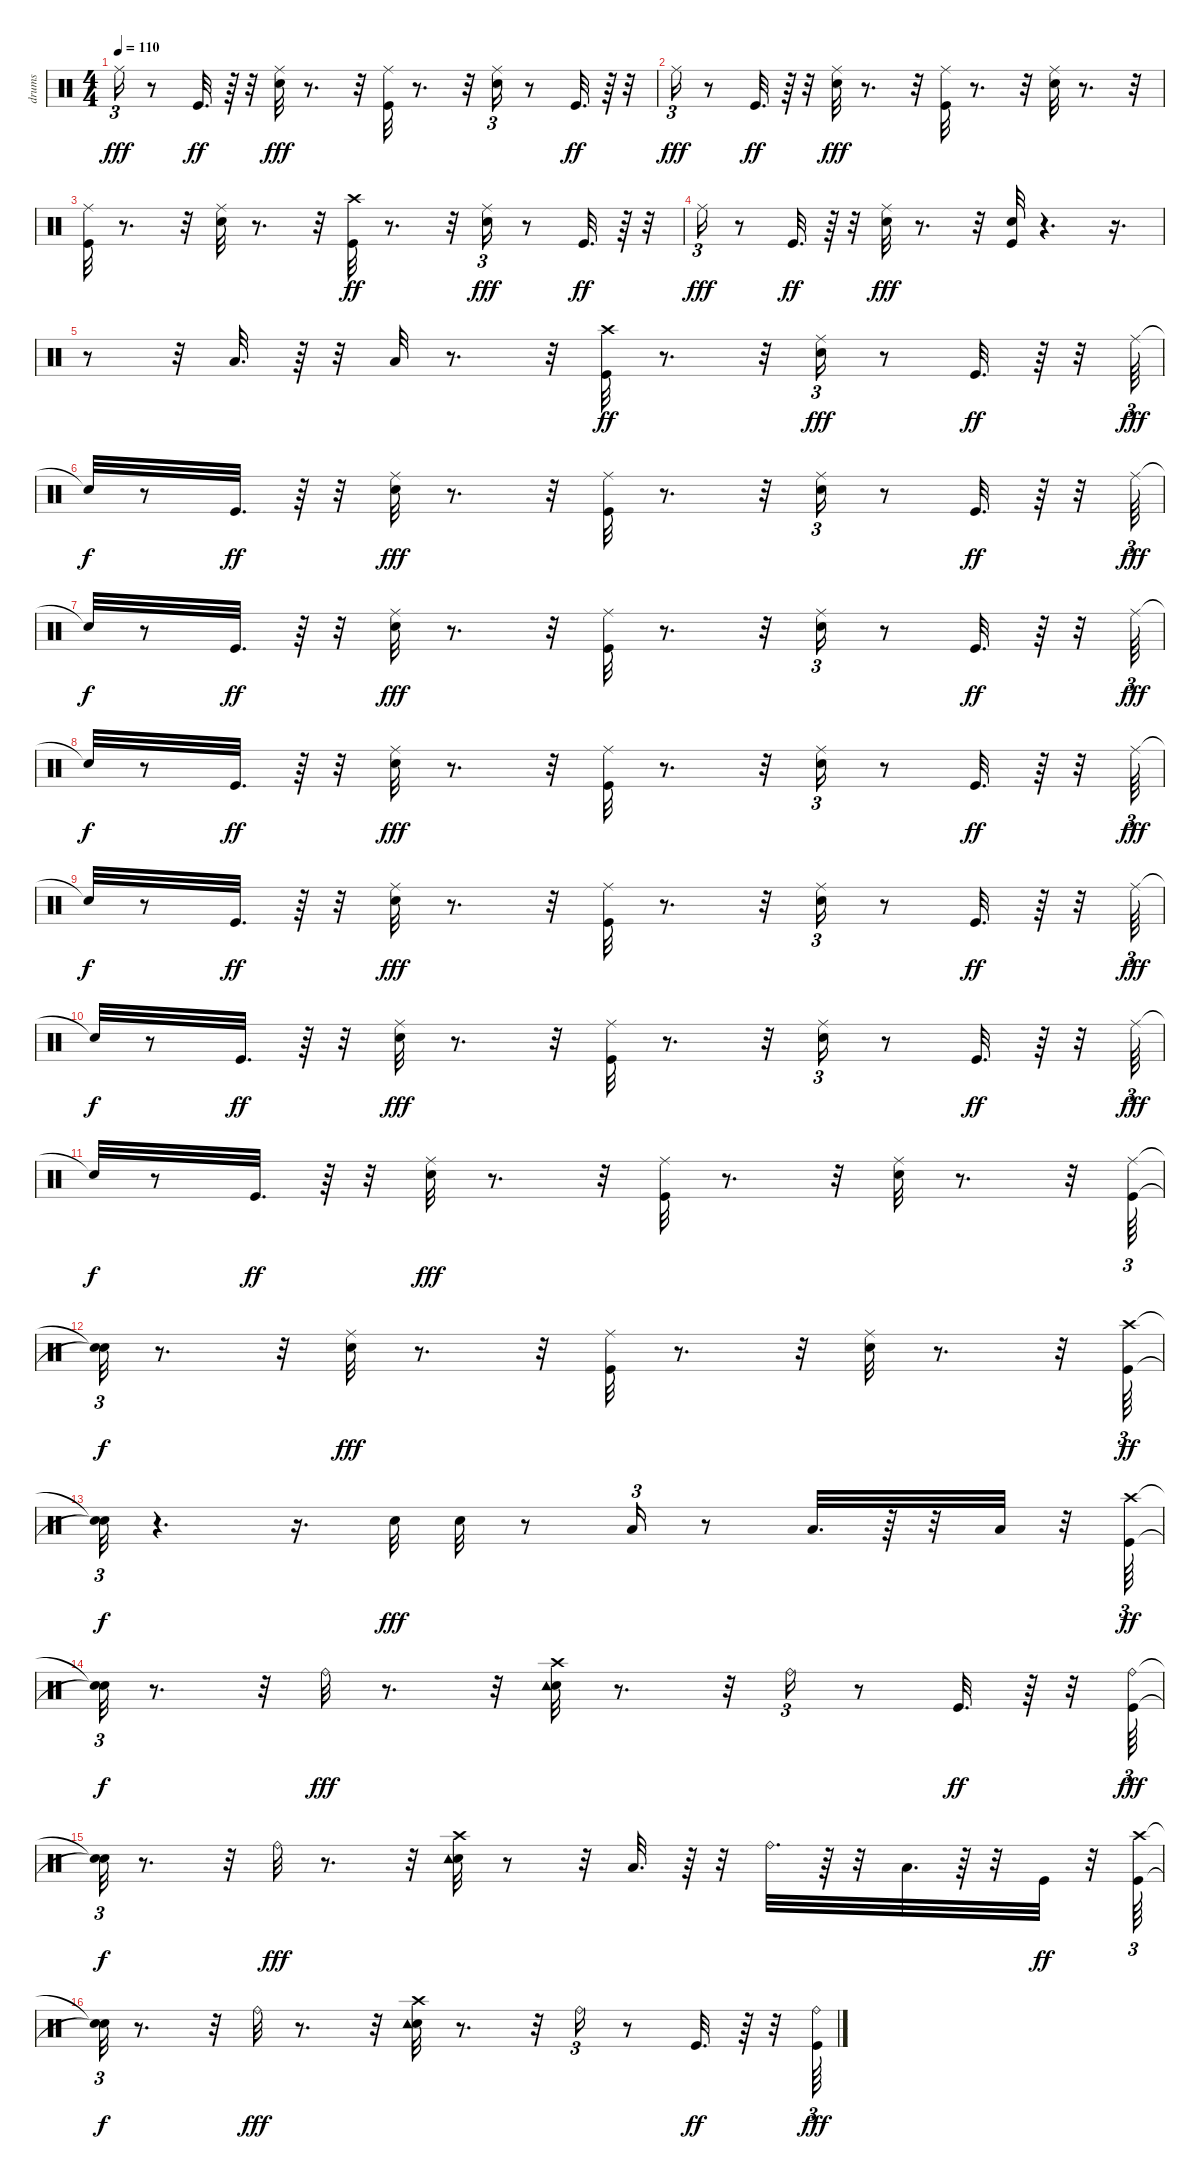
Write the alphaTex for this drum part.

\track ("drums    " "drums    ") {instrument percussion}
\staff {score}
\articulation defaults
\ts (4 4)
\tempo 110
\clef neutral
\ks c "Ride (middle)".16{tu (3 2) dy fff}
r.8 "Kick (hit)".32{d dy ff} r.64 r.32 ("Snare (hit) 2" "Ride (middle)").32{dy fff} r.8{d} r.32 ("Kick (hit)" "Ride (middle)").32 r.8{d} r.32 ("Snare (hit) 2" "Ride (middle)").16{tu (3 2)} r.8 "Kick (hit)".32{d dy ff} r.64 r.32 |
"Ride (middle)".16{tu (3 2) dy fff} r.8 "Kick (hit)".32{d dy ff} r.64 r.32 ("Snare (hit) 2" "Ride (middle)").32{dy fff} r.8{d} r.32 ("Kick (hit)" "Ride (middle)").32 r.8{d} r.32 ("Ride (middle)" "Snare (hit) 2").32 r.8{d} r.32 |
("Kick (hit)" "Ride (middle)").32 r.8{d} r.32 ("Snare (hit) 2" "Ride (middle)").32 r.8{d} r.32 ("Kick (hit)" "Crash high (hit)").32{dy ff} r.8{d} r.32 ("Snare (hit) 2" "Ride (middle)").16{tu (3 2) dy fff} r.8 "Kick (hit)".32{d dy ff} r.64 r.32 |
"Ride (middle)".16{tu (3 2) dy fff} r.8 "Kick (hit)".32{d dy ff} r.64 r.32 ("Snare (hit) 2" "Ride (middle)").32{dy fff} r.8{d} r.32 ("Kick (hit)" "Snare (hit) 2").32 r.4{d} r.16{d} |
r.8 r.32 "Low Tom (hit)".32{d} r.64 r.32 "Low Floor Tom (hit)".32 r.8{d} r.32 ("Kick (hit)" "Crash high (hit)").32{dy ff} r.8{d} r.32 ("Snare (hit) 2" "Ride (middle)").16{tu (3 2) dy fff} r.8 "Kick (hit)".32{d dy ff} r.64 r.32 "Ride (middle)".64{tu (3 2) dy fff} |
"Snare (hit)"{t}.32{dy f} r.8 "Kick (hit)".32{d dy ff} r.64 r.32 ("Snare (hit) 2" "Ride (middle)").32{dy fff} r.8{d} r.32 ("Kick (hit)" "Ride (middle)").32 r.8{d} r.32 ("Snare (hit) 2" "Ride (middle)").16{tu (3 2)} r.8 "Kick (hit)".32{d dy ff} r.64 r.32 "Ride (middle)".64{tu (3 2) dy fff} |
"Snare (hit)"{t}.32{dy f} r.8 "Kick (hit)".32{d dy ff} r.64 r.32 ("Snare (hit) 2" "Ride (middle)").32{dy fff} r.8{d} r.32 ("Kick (hit)" "Ride (middle)").32 r.8{d} r.32 ("Snare (hit) 2" "Ride (middle)").16{tu (3 2)} r.8 "Kick (hit)".32{d dy ff} r.64 r.32 "Ride (middle)".64{tu (3 2) dy fff} |
"Snare (hit)"{t}.32{dy f} r.8 "Kick (hit)".32{d dy ff} r.64 r.32 ("Snare (hit) 2" "Ride (middle)").32{dy fff} r.8{d} r.32 ("Kick (hit)" "Ride (middle)").32 r.8{d} r.32 ("Snare (hit) 2" "Ride (middle)").16{tu (3 2)} r.8 "Kick (hit)".32{d dy ff} r.64 r.32 "Ride (middle)".64{tu (3 2) dy fff} |
"Snare (hit)"{t}.32{dy f} r.8 "Kick (hit)".32{d dy ff} r.64 r.32 ("Snare (hit) 2" "Ride (middle)").32{dy fff} r.8{d} r.32 ("Kick (hit)" "Ride (middle)").32 r.8{d} r.32 ("Snare (hit) 2" "Ride (middle)").16{tu (3 2)} r.8 "Kick (hit)".32{d dy ff} r.64 r.32 "Ride (middle)".64{tu (3 2) dy fff} |
"Snare (hit)"{t}.32{dy f} r.8 "Kick (hit)".32{d dy ff} r.64 r.32 ("Snare (hit) 2" "Ride (middle)").32{dy fff} r.8{d} r.32 ("Kick (hit)" "Ride (middle)").32 r.8{d} r.32 ("Snare (hit) 2" "Ride (middle)").16{tu (3 2)} r.8 "Kick (hit)".32{d dy ff} r.64 r.32 "Ride (middle)".64{tu (3 2) dy fff} |
"Snare (hit)"{t}.32{dy f} r.8 "Kick (hit)".32{d dy ff} r.64 r.32 ("Snare (hit) 2" "Ride (middle)").32{dy fff} r.8{d} r.32 ("Kick (hit)" "Ride (middle)").32 r.8{d} r.32 ("Snare (hit) 2" "Ride (middle)").32 r.8{d} r.32 ("Kick (hit)" "Ride (middle)").64{tu (3 2)} |
("Snare (hit)"{t} "Snare (hit)"{t}).32{tu (3 2) dy f} r.8{d} r.32 ("Ride (middle)" "Snare (hit) 2").32{dy fff} r.8{d} r.32 ("Kick (hit)" "Ride (middle)").32 r.8{d} r.32 ("Snare (hit) 2" "Ride (middle)").32 r.8{d} r.32 ("Crash high (hit)" "Kick (hit)").64{tu (3 2) dy ff} |
("Snare (hit)"{t} "Snare (hit)"{t}).32{tu (3 2) dy f} r.4{d} r.16{d} "Snare (hit) 2".32{dy fff} "Snare (hit) 2".32 r.8 "Low Tom (hit)".16{tu (3 2)} r.8 "Low Tom (hit)".32{d} r.64 r.32 "Low Floor Tom (hit)".32 r.32 ("Crash high (hit)" "Kick (hit)").64{tu (3 2) dy ff} |
("Snare (hit)"{t} "Snare (hit)"{t}).32{tu (3 2) dy f} r.8{d} r.32 "Ride (bell)".32{dy fff} r.8{d} r.32 ("Snare (hit) 2" "Crash high (hit)" "Tambourine (hit)").32 r.8{d} r.32 "Ride (bell)".16{tu (3 2)} r.8 "Kick (hit)".32{d dy ff} r.64 r.32 ("Kick (hit)" "Ride (bell)").64{tu (3 2) dy fff} |
("Snare (hit)"{t} "Snare (hit)"{t}).32{tu (3 2) dy f} r.8{d} r.32 "Ride (bell)".32{dy fff} r.8{d} r.32 ("Snare (hit) 2" "Crash high (hit)" "Tambourine (hit)").32 r.8 r.32 "Low Tom (hit)".32{d} r.64 r.32 "Ride (bell)".32{d} r.64 r.32 "Low Floor Tom (hit)".32{d} r.64 r.32 "Kick (hit)".32{dy ff} r.32 ("Kick (hit)" "Crash high (hit)").64{tu (3 2)} |
("Snare (hit)"{t} "Snare (hit)"{t}).32{tu (3 2) dy f} r.8{d} r.32 "Ride (bell)".32{dy fff} r.8{d} r.32 ("Snare (hit) 2" "Crash high (hit)" "Tambourine (hit)").32 r.8{d} r.32 "Ride (bell)".16{tu (3 2)} r.8 "Kick (hit)".32{d dy ff} r.64 r.32 ("Kick (hit)" "Ride (bell)").64{tu (3 2) dy fff}
